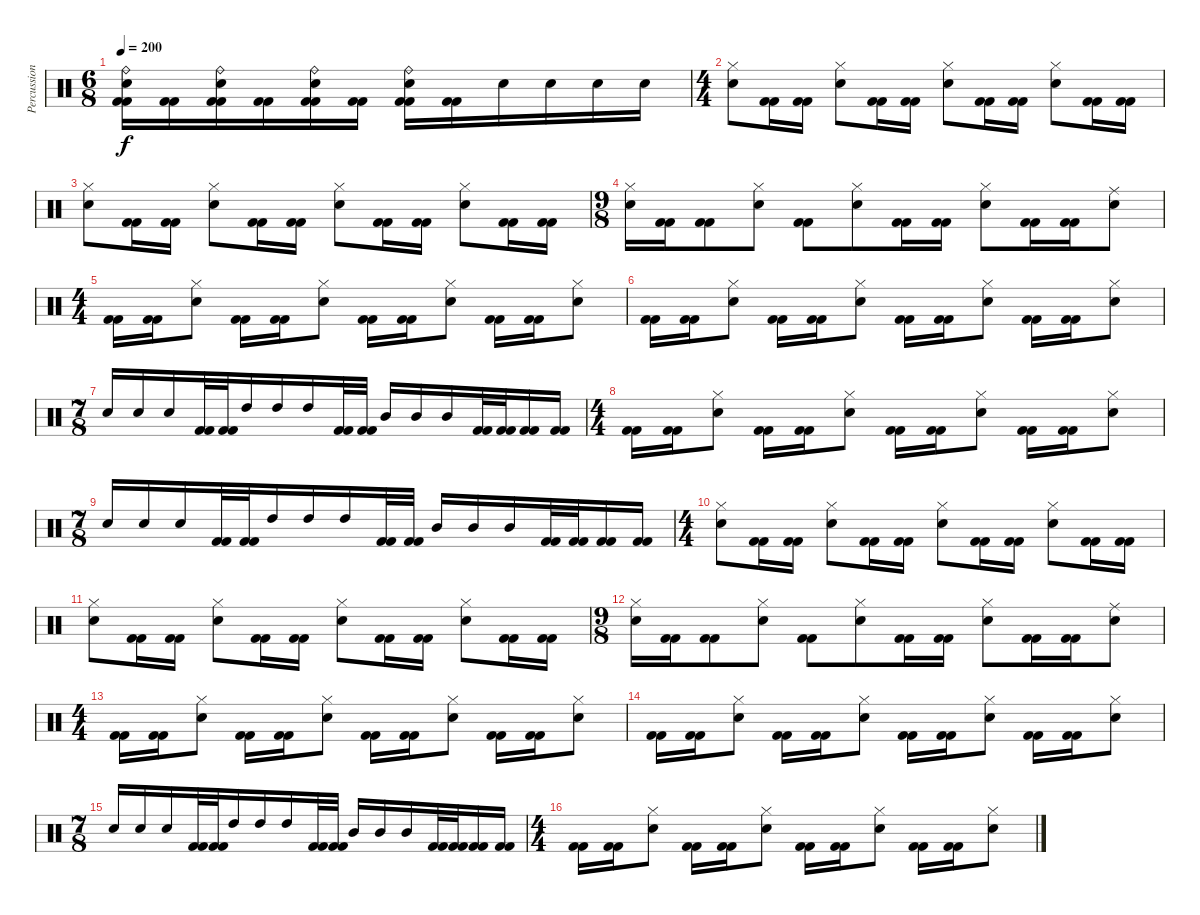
\track ("Percussions" "Percussion") {instrument percussion}
\staff {score}
\articulation defaults
\ts (6 8)
\tempo 200
\clef neutral
\ks c
("Kick (hit) 2" "Kick (hit) 2" "Electric Snare (hit)" "Ride (bell)").16{dy f} ("Kick (hit) 2" "Kick (hit) 2").16 ("Kick (hit) 2" "Kick (hit) 2" "Electric Snare (hit)" "Ride (bell)").16 ("Kick (hit) 2" "Kick (hit) 2").16 ("Kick (hit) 2" "Kick (hit) 2" "Electric Snare (hit)" "Ride (bell)").16 ("Kick (hit) 2" "Kick (hit) 2").16 ("Kick (hit) 2" "Kick (hit) 2" "Electric Snare (hit)" "Ride (bell)").16 ("Kick (hit) 2" "Kick (hit) 2").16 "Electric Snare (hit)".16 "Electric Snare (hit)".16 "Electric Snare (hit)".16 "Electric Snare (hit)".16 |
\ts (4 4)
("Electric Snare (hit)" "Hi-Hat (closed)").8 ("Kick (hit) 2" "Kick (hit) 2").16 ("Kick (hit) 2" "Kick (hit) 2").16 ("Electric Snare (hit)" "Hi-Hat (closed)").8 ("Kick (hit) 2" "Kick (hit) 2").16 ("Kick (hit) 2" "Kick (hit) 2").16 ("Electric Snare (hit)" "Hi-Hat (closed)").8 ("Kick (hit) 2" "Kick (hit) 2").16 ("Kick (hit) 2" "Kick (hit) 2").16 ("Electric Snare (hit)" "Hi-Hat (closed)").8 ("Kick (hit) 2" "Kick (hit) 2").16 ("Kick (hit) 2" "Kick (hit) 2").16 |
("Electric Snare (hit)" "Hi-Hat (closed)").8 ("Kick (hit) 2" "Kick (hit) 2").16 ("Kick (hit) 2" "Kick (hit) 2").16 ("Electric Snare (hit)" "Hi-Hat (closed)").8 ("Kick (hit) 2" "Kick (hit) 2").16 ("Kick (hit) 2" "Kick (hit) 2").16 ("Electric Snare (hit)" "Hi-Hat (closed)").8 ("Kick (hit) 2" "Kick (hit) 2").16 ("Kick (hit) 2" "Kick (hit) 2").16 ("Electric Snare (hit)" "Hi-Hat (closed)").8 ("Kick (hit) 2" "Kick (hit) 2").16 ("Kick (hit) 2" "Kick (hit) 2").16 |
\ts (9 8)
("Electric Snare (hit)" "Hi-Hat (closed)").16 ("Kick (hit) 2" "Kick (hit) 2").16 ("Kick (hit) 2" "Kick (hit) 2").8 ("Electric Snare (hit)" "Hi-Hat (closed)").8 ("Kick (hit) 2" "Kick (hit) 2").8 ("Electric Snare (hit)" "Hi-Hat (closed)").8 ("Kick (hit) 2" "Kick (hit) 2").16 ("Kick (hit) 2" "Kick (hit) 2").16 ("Electric Snare (hit)" "Hi-Hat (closed)").8 ("Kick (hit) 2" "Kick (hit) 2").16 ("Kick (hit) 2" "Kick (hit) 2").16 ("Electric Snare (hit)" "Ride (middle)").8 |
\ts (4 4)
("Kick (hit) 2" "Kick (hit) 2").16 ("Kick (hit) 2" "Kick (hit) 2").16 ("Electric Snare (hit)" "Hi-Hat (closed)").8 ("Kick (hit) 2" "Kick (hit) 2").16 ("Kick (hit) 2" "Kick (hit) 2").16 ("Electric Snare (hit)" "Hi-Hat (closed)").8 ("Kick (hit) 2" "Kick (hit) 2").16 ("Kick (hit) 2" "Kick (hit) 2").16 ("Electric Snare (hit)" "Hi-Hat (closed)").8 ("Kick (hit) 2" "Kick (hit) 2").16 ("Kick (hit) 2" "Kick (hit) 2").16 ("Electric Snare (hit)" "Hi-Hat (closed)").8 |
("Kick (hit) 2" "Kick (hit) 2").16 ("Kick (hit) 2" "Kick (hit) 2").16 ("Electric Snare (hit)" "Hi-Hat (closed)").8 ("Kick (hit) 2" "Kick (hit) 2").16 ("Kick (hit) 2" "Kick (hit) 2").16 ("Electric Snare (hit)" "Hi-Hat (closed)").8 ("Kick (hit) 2" "Kick (hit) 2").16 ("Kick (hit) 2" "Kick (hit) 2").16 ("Electric Snare (hit)" "Hi-Hat (closed)").8 ("Kick (hit) 2" "Kick (hit) 2").16 ("Kick (hit) 2" "Kick (hit) 2").16 ("Electric Snare (hit)" "Hi-Hat (closed)").8 |
\ts (7 8)
"Electric Snare (hit)".16 "Electric Snare (hit)".16 "Electric Snare (hit)".16 ("Kick (hit) 2" "Kick (hit) 2").32 ("Kick (hit) 2" "Kick (hit) 2").32 "High Tom (hit)".16 "High Tom (hit)".16 "High Tom (hit)".16 ("Kick (hit) 2" "Kick (hit) 2").32 ("Kick (hit) 2" "Kick (hit) 2").32 "Mid Tom (hit)".16 "Mid Tom (hit)".16 "Mid Tom (hit)".16 ("Kick (hit) 2" "Kick (hit) 2").32 ("Kick (hit) 2" "Kick (hit) 2").32 ("Kick (hit) 2" "Kick (hit) 2").16 ("Kick (hit) 2" "Kick (hit) 2").16 |
\ts (4 4)
("Kick (hit) 2" "Kick (hit) 2").16 ("Kick (hit) 2" "Kick (hit) 2").16 ("Electric Snare (hit)" "Hi-Hat (closed)").8 ("Kick (hit) 2" "Kick (hit) 2").16 ("Kick (hit) 2" "Kick (hit) 2").16 ("Electric Snare (hit)" "Hi-Hat (closed)").8 ("Kick (hit) 2" "Kick (hit) 2").16 ("Kick (hit) 2" "Kick (hit) 2").16 ("Electric Snare (hit)" "Hi-Hat (closed)").8 ("Kick (hit) 2" "Kick (hit) 2").16 ("Kick (hit) 2" "Kick (hit) 2").16 ("Electric Snare (hit)" "Hi-Hat (closed)").8 |
\ts (7 8)
"Electric Snare (hit)".16 "Electric Snare (hit)".16 "Electric Snare (hit)".16 ("Kick (hit) 2" "Kick (hit) 2").32 ("Kick (hit) 2" "Kick (hit) 2").32 "High Tom (hit)".16 "High Tom (hit)".16 "High Tom (hit)".16 ("Kick (hit) 2" "Kick (hit) 2").32 ("Kick (hit) 2" "Kick (hit) 2").32 "Mid Tom (hit)".16 "Mid Tom (hit)".16 "Mid Tom (hit)".16 ("Kick (hit) 2" "Kick (hit) 2").32 ("Kick (hit) 2" "Kick (hit) 2").32 ("Kick (hit) 2" "Kick (hit) 2").16 ("Kick (hit) 2" "Kick (hit) 2").16 |
\ts (4 4)
("Electric Snare (hit)" "Hi-Hat (closed)").8 ("Kick (hit) 2" "Kick (hit) 2").16 ("Kick (hit) 2" "Kick (hit) 2").16 ("Electric Snare (hit)" "Hi-Hat (closed)").8 ("Kick (hit) 2" "Kick (hit) 2").16 ("Kick (hit) 2" "Kick (hit) 2").16 ("Electric Snare (hit)" "Hi-Hat (closed)").8 ("Kick (hit) 2" "Kick (hit) 2").16 ("Kick (hit) 2" "Kick (hit) 2").16 ("Electric Snare (hit)" "Hi-Hat (closed)").8 ("Kick (hit) 2" "Kick (hit) 2").16 ("Kick (hit) 2" "Kick (hit) 2").16 |
("Electric Snare (hit)" "Hi-Hat (closed)").8 ("Kick (hit) 2" "Kick (hit) 2").16 ("Kick (hit) 2" "Kick (hit) 2").16 ("Electric Snare (hit)" "Hi-Hat (closed)").8 ("Kick (hit) 2" "Kick (hit) 2").16 ("Kick (hit) 2" "Kick (hit) 2").16 ("Electric Snare (hit)" "Hi-Hat (closed)").8 ("Kick (hit) 2" "Kick (hit) 2").16 ("Kick (hit) 2" "Kick (hit) 2").16 ("Electric Snare (hit)" "Hi-Hat (closed)").8 ("Kick (hit) 2" "Kick (hit) 2").16 ("Kick (hit) 2" "Kick (hit) 2").16 |
\ts (9 8)
("Electric Snare (hit)" "Hi-Hat (closed)").16 ("Kick (hit) 2" "Kick (hit) 2").16 ("Kick (hit) 2" "Kick (hit) 2").8 ("Electric Snare (hit)" "Hi-Hat (closed)").8 ("Kick (hit) 2" "Kick (hit) 2").8 ("Electric Snare (hit)" "Hi-Hat (closed)").8 ("Kick (hit) 2" "Kick (hit) 2").16 ("Kick (hit) 2" "Kick (hit) 2").16 ("Electric Snare (hit)" "Hi-Hat (closed)").8 ("Kick (hit) 2" "Kick (hit) 2").16 ("Kick (hit) 2" "Kick (hit) 2").16 ("Electric Snare (hit)" "Ride (middle)").8 |
\ts (4 4)
("Kick (hit) 2" "Kick (hit) 2").16 ("Kick (hit) 2" "Kick (hit) 2").16 ("Electric Snare (hit)" "Hi-Hat (closed)").8 ("Kick (hit) 2" "Kick (hit) 2").16 ("Kick (hit) 2" "Kick (hit) 2").16 ("Electric Snare (hit)" "Hi-Hat (closed)").8 ("Kick (hit) 2" "Kick (hit) 2").16 ("Kick (hit) 2" "Kick (hit) 2").16 ("Electric Snare (hit)" "Hi-Hat (closed)").8 ("Kick (hit) 2" "Kick (hit) 2").16 ("Kick (hit) 2" "Kick (hit) 2").16 ("Electric Snare (hit)" "Hi-Hat (closed)").8 |
("Kick (hit) 2" "Kick (hit) 2").16 ("Kick (hit) 2" "Kick (hit) 2").16 ("Electric Snare (hit)" "Hi-Hat (closed)").8 ("Kick (hit) 2" "Kick (hit) 2").16 ("Kick (hit) 2" "Kick (hit) 2").16 ("Electric Snare (hit)" "Hi-Hat (closed)").8 ("Kick (hit) 2" "Kick (hit) 2").16 ("Kick (hit) 2" "Kick (hit) 2").16 ("Electric Snare (hit)" "Hi-Hat (closed)").8 ("Kick (hit) 2" "Kick (hit) 2").16 ("Kick (hit) 2" "Kick (hit) 2").16 ("Electric Snare (hit)" "Hi-Hat (closed)").8 |
\ts (7 8)
"Electric Snare (hit)".16 "Electric Snare (hit)".16 "Electric Snare (hit)".16 ("Kick (hit) 2" "Kick (hit) 2").32 ("Kick (hit) 2" "Kick (hit) 2").32 "High Tom (hit)".16 "High Tom (hit)".16 "High Tom (hit)".16 ("Kick (hit) 2" "Kick (hit) 2").32 ("Kick (hit) 2" "Kick (hit) 2").32 "Mid Tom (hit)".16 "Mid Tom (hit)".16 "Mid Tom (hit)".16 ("Kick (hit) 2" "Kick (hit) 2").32 ("Kick (hit) 2" "Kick (hit) 2").32 ("Kick (hit) 2" "Kick (hit) 2").16 ("Kick (hit) 2" "Kick (hit) 2").16 |
\ts (4 4)
("Kick (hit) 2" "Kick (hit) 2").16 ("Kick (hit) 2" "Kick (hit) 2").16 ("Electric Snare (hit)" "Hi-Hat (closed)").8 ("Kick (hit) 2" "Kick (hit) 2").16 ("Kick (hit) 2" "Kick (hit) 2").16 ("Electric Snare (hit)" "Hi-Hat (closed)").8 ("Kick (hit) 2" "Kick (hit) 2").16 ("Kick (hit) 2" "Kick (hit) 2").16 ("Electric Snare (hit)" "Hi-Hat (closed)").8 ("Kick (hit) 2" "Kick (hit) 2").16 ("Kick (hit) 2" "Kick (hit) 2").16 ("Electric Snare (hit)" "Hi-Hat (closed)").8
